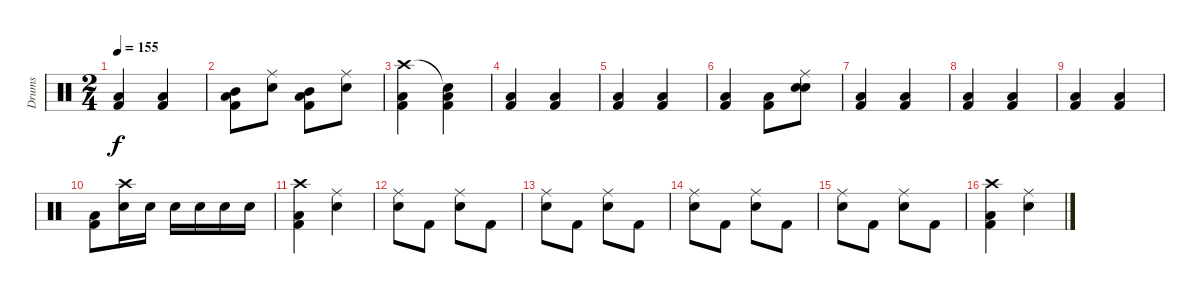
\track ("Drums" "Drums") {instrument percussion}
\staff {score}
\articulation defaults
\ts (2 4)
\tempo 155
\clef neutral
\ks c
("Low Floor Tom (hit)" "Kick (hit) 2").4{dy f} ("Low Floor Tom (hit)" "Kick (hit) 2").4 |
("Low Floor Tom (hit)" "Kick (hit) 2" "Mid Tom (hit)").8 ("Snare (hit) 2" "Ride (middle)").8 ("Low Floor Tom (hit)" "Kick (hit) 2" "Mid Tom (hit)").8 ("Snare (hit) 2" "Ride (middle)").8 |
("Low Floor Tom (hit)" "Kick (hit) 2" "Crash high (hit)").4 ("Low Floor Tom (hit)" "Kick (hit) 2" "Snare (hit)"{t}).4 |
("Low Floor Tom (hit)" "Kick (hit) 2").4 ("Low Floor Tom (hit)" "Kick (hit) 2").4 |
("Low Floor Tom (hit)" "Kick (hit) 2").4 ("Low Floor Tom (hit)" "Kick (hit) 2").4 |
("Low Floor Tom (hit)" "Kick (hit) 2").4 ("Low Floor Tom (hit)" "Kick (hit) 2").8 ("Snare (hit) 2" "Ride (middle)" "Snare (hit) 2").8 |
("Low Floor Tom (hit)" "Kick (hit) 2").4 ("Low Floor Tom (hit)" "Kick (hit) 2").4 |
("Low Floor Tom (hit)" "Kick (hit) 2").4 ("Low Floor Tom (hit)" "Kick (hit) 2").4 |
("Low Floor Tom (hit)" "Kick (hit) 2").4 ("Low Floor Tom (hit)" "Kick (hit) 2").4 |
("Low Floor Tom (hit)" "Kick (hit) 2").8 ("Snare (hit) 2" "Crash high (hit)").16 "Snare (hit) 2".16 "Snare (hit) 2".16 "Snare (hit) 2".16 "Snare (hit) 2".16 "Snare (hit) 2".16 |
("Low Floor Tom (hit)" "Kick (hit) 2" "Crash high (hit)").4 ("Snare (hit) 2" "Ride (middle)").4 |
("Snare (hit) 2" "Ride (middle)").8 "Kick (hit) 2".8 ("Snare (hit) 2" "Ride (middle)").8 "Kick (hit) 2".8 |
("Snare (hit) 2" "Ride (middle)").8 "Kick (hit) 2".8 ("Snare (hit) 2" "Ride (middle)").8 "Kick (hit) 2".8 |
("Snare (hit) 2" "Ride (middle)").8 "Kick (hit) 2".8 ("Snare (hit) 2" "Ride (middle)").8 "Kick (hit) 2".8 |
("Snare (hit) 2" "Ride (middle)").8 "Kick (hit) 2".8 ("Snare (hit) 2" "Ride (middle)").8 "Kick (hit) 2".8 |
("Low Floor Tom (hit)" "Kick (hit) 2" "Crash high (hit)").4 ("Snare (hit) 2" "Ride (middle)").4
